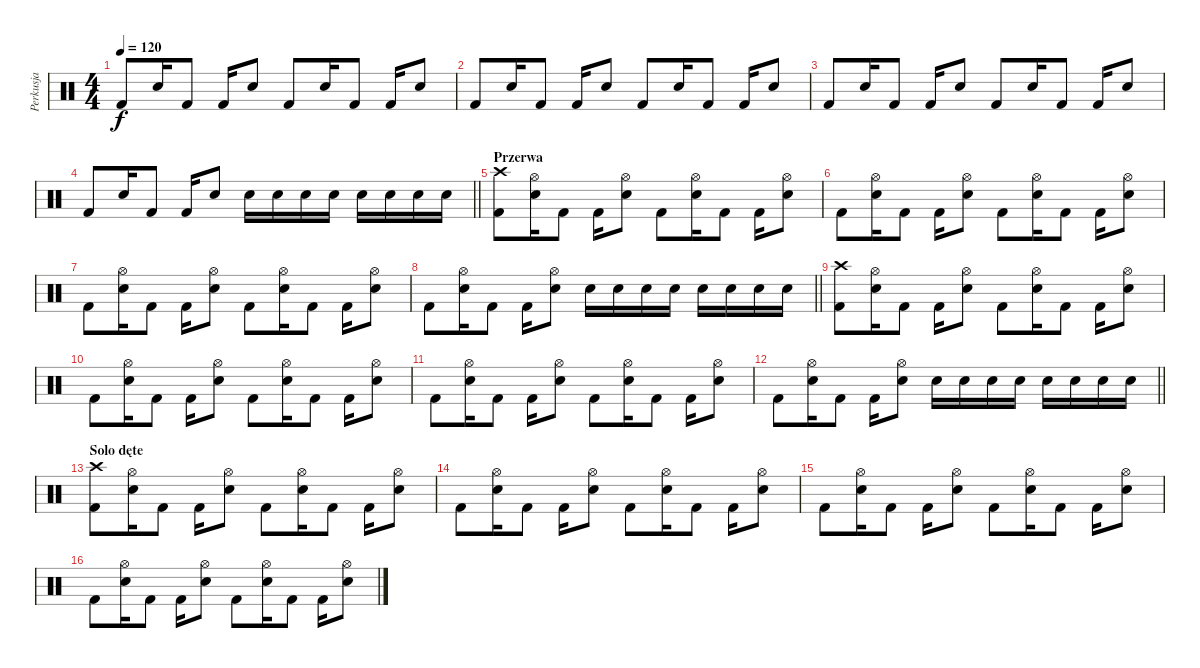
\track ("Perkusja" "Perkusja") {instrument percussion}
\staff {score}
\articulation defaults
\ts (4 4)
\tempo 120
\clef neutral
\ks c "Kick (hit) 2".8{dy f} "Electric Snare (hit)".16 "Kick (hit) 2".8 "Kick (hit) 2".16 "Electric Snare (hit)".8 "Kick (hit) 2".8 "Electric Snare (hit)".16 "Kick (hit) 2".8 "Kick (hit) 2".16 "Electric Snare (hit)".8
|
"Kick (hit) 2".8 "Electric Snare (hit)".16 "Kick (hit) 2".8 "Kick (hit) 2".16 "Electric Snare (hit)".8 "Kick (hit) 2".8 "Electric Snare (hit)".16 "Kick (hit) 2".8 "Kick (hit) 2".16 "Electric Snare (hit)".8 |
"Kick (hit) 2".8 "Electric Snare (hit)".16 "Kick (hit) 2".8 "Kick (hit) 2".16 "Electric Snare (hit)".8 "Kick (hit) 2".8 "Electric Snare (hit)".16 "Kick (hit) 2".8 "Kick (hit) 2".16 "Electric Snare (hit)".8 |
\barLineRight lightlight "Kick (hit) 2".8 "Electric Snare (hit)".16 "Kick (hit) 2".8 "Kick (hit) 2".16 "Electric Snare (hit)".8 "Electric Snare (hit)".16 "Electric Snare (hit)".16 "Electric Snare (hit)".16 "Electric Snare (hit)".16 "Electric Snare (hit)".16 "Electric Snare (hit)".16 "Electric Snare (hit)".16 "Electric Snare (hit)".16
|
\section ("" "Przerwa")
("Crash high (hit)" "Kick (hit) 2").8 ("Hi-Hat (open)" "Electric Snare (hit)").16 "Kick (hit) 2".8 "Kick (hit) 2".16 ("Hi-Hat (open)" "Electric Snare (hit)").8 "Kick (hit) 2".8 ("Hi-Hat (open)" "Electric Snare (hit)").16 "Kick (hit) 2".8 "Kick (hit) 2".16 ("Hi-Hat (open)" "Electric Snare (hit)").8 |
"Kick (hit) 2".8 ("Hi-Hat (open)" "Electric Snare (hit)").16 "Kick (hit) 2".8 "Kick (hit) 2".16 ("Hi-Hat (open)" "Electric Snare (hit)").8 "Kick (hit) 2".8 ("Hi-Hat (open)" "Electric Snare (hit)").16 "Kick (hit) 2".8 "Kick (hit) 2".16 ("Hi-Hat (open)" "Electric Snare (hit)").8 |
"Kick (hit) 2".8 ("Hi-Hat (open)" "Electric Snare (hit)").16 "Kick (hit) 2".8 "Kick (hit) 2".16 ("Hi-Hat (open)" "Electric Snare (hit)").8 "Kick (hit) 2".8 ("Hi-Hat (open)" "Electric Snare (hit)").16 "Kick (hit) 2".8 "Kick (hit) 2".16 ("Hi-Hat (open)" "Electric Snare (hit)").8 |
\barLineRight lightlight "Kick (hit) 2".8
("Hi-Hat (open)" "Electric Snare (hit)").16 "Kick (hit) 2".8 "Kick (hit) 2".16 ("Hi-Hat (open)" "Electric Snare (hit)").8 "Electric Snare (hit)".16 "Electric Snare (hit)".16 "Electric Snare (hit)".16 "Electric Snare (hit)".16 "Electric Snare (hit)".16 "Electric Snare (hit)".16 "Electric Snare (hit)".16 "Electric Snare (hit)".16 |
("Crash high (hit)" "Kick (hit) 2").8 ("Hi-Hat (open)" "Electric Snare (hit)").16 "Kick (hit) 2".8 "Kick (hit) 2".16 ("Hi-Hat (open)" "Electric Snare (hit)").8 "Kick (hit) 2".8 ("Hi-Hat (open)" "Electric Snare (hit)").16 "Kick (hit) 2".8 "Kick (hit) 2".16 ("Hi-Hat (open)" "Electric Snare (hit)").8 |
"Kick (hit) 2".8 ("Hi-Hat (open)" "Electric Snare (hit)").16 "Kick (hit) 2".8 "Kick (hit) 2".16 ("Hi-Hat (open)" "Electric Snare (hit)").8 "Kick (hit) 2".8 ("Hi-Hat (open)" "Electric Snare (hit)").16 "Kick (hit) 2".8 "Kick (hit) 2".16 ("Hi-Hat (open)" "Electric Snare (hit)").8 |
"Kick (hit) 2".8 ("Hi-Hat (open)" "Electric Snare (hit)").16 "Kick (hit) 2".8 "Kick (hit) 2".16 ("Hi-Hat (open)" "Electric Snare (hit)").8 "Kick (hit) 2".8 ("Hi-Hat (open)" "Electric Snare (hit)").16 "Kick (hit) 2".8 "Kick (hit) 2".16 ("Hi-Hat (open)" "Electric Snare (hit)").8 |
\barLineRight lightlight "Kick (hit) 2".8
("Hi-Hat (open)" "Electric Snare (hit)").16 "Kick (hit) 2".8 "Kick (hit) 2".16 ("Hi-Hat (open)" "Electric Snare (hit)").8 "Electric Snare (hit)".16 "Electric Snare (hit)".16 "Electric Snare (hit)".16 "Electric Snare (hit)".16 "Electric Snare (hit)".16 "Electric Snare (hit)".16 "Electric Snare (hit)".16 "Electric Snare (hit)".16 |
\section ("" "Solo dęte")
("Crash high (hit)" "Kick (hit) 2").8 ("Hi-Hat (open)" "Electric Snare (hit)").16 "Kick (hit) 2".8 "Kick (hit) 2".16 ("Hi-Hat (open)" "Electric Snare (hit)").8 "Kick (hit) 2".8 ("Hi-Hat (open)" "Electric Snare (hit)").16 "Kick (hit) 2".8 "Kick (hit) 2".16 ("Hi-Hat (open)" "Electric Snare (hit)").8 |
"Kick (hit) 2".8 ("Hi-Hat (open)" "Electric Snare (hit)").16 "Kick (hit) 2".8 "Kick (hit) 2".16 ("Hi-Hat (open)" "Electric Snare (hit)").8 "Kick (hit) 2".8 ("Hi-Hat (open)" "Electric Snare (hit)").16 "Kick (hit) 2".8 "Kick (hit) 2".16 ("Hi-Hat (open)" "Electric Snare (hit)").8 |
"Kick (hit) 2".8 ("Hi-Hat (open)" "Electric Snare (hit)").16 "Kick (hit) 2".8 "Kick (hit) 2".16 ("Hi-Hat (open)" "Electric Snare (hit)").8 "Kick (hit) 2".8 ("Hi-Hat (open)" "Electric Snare (hit)").16 "Kick (hit) 2".8 "Kick (hit) 2".16 ("Hi-Hat (open)" "Electric Snare (hit)").8 |
"Kick (hit) 2".8 ("Hi-Hat (open)" "Electric Snare (hit)").16 "Kick (hit) 2".8 "Kick (hit) 2".16 ("Hi-Hat (open)" "Electric Snare (hit)").8 "Kick (hit) 2".8 ("Hi-Hat (open)" "Electric Snare (hit)").16 "Kick (hit) 2".8 "Kick (hit) 2".16 ("Hi-Hat (open)" "Electric Snare (hit)").8
